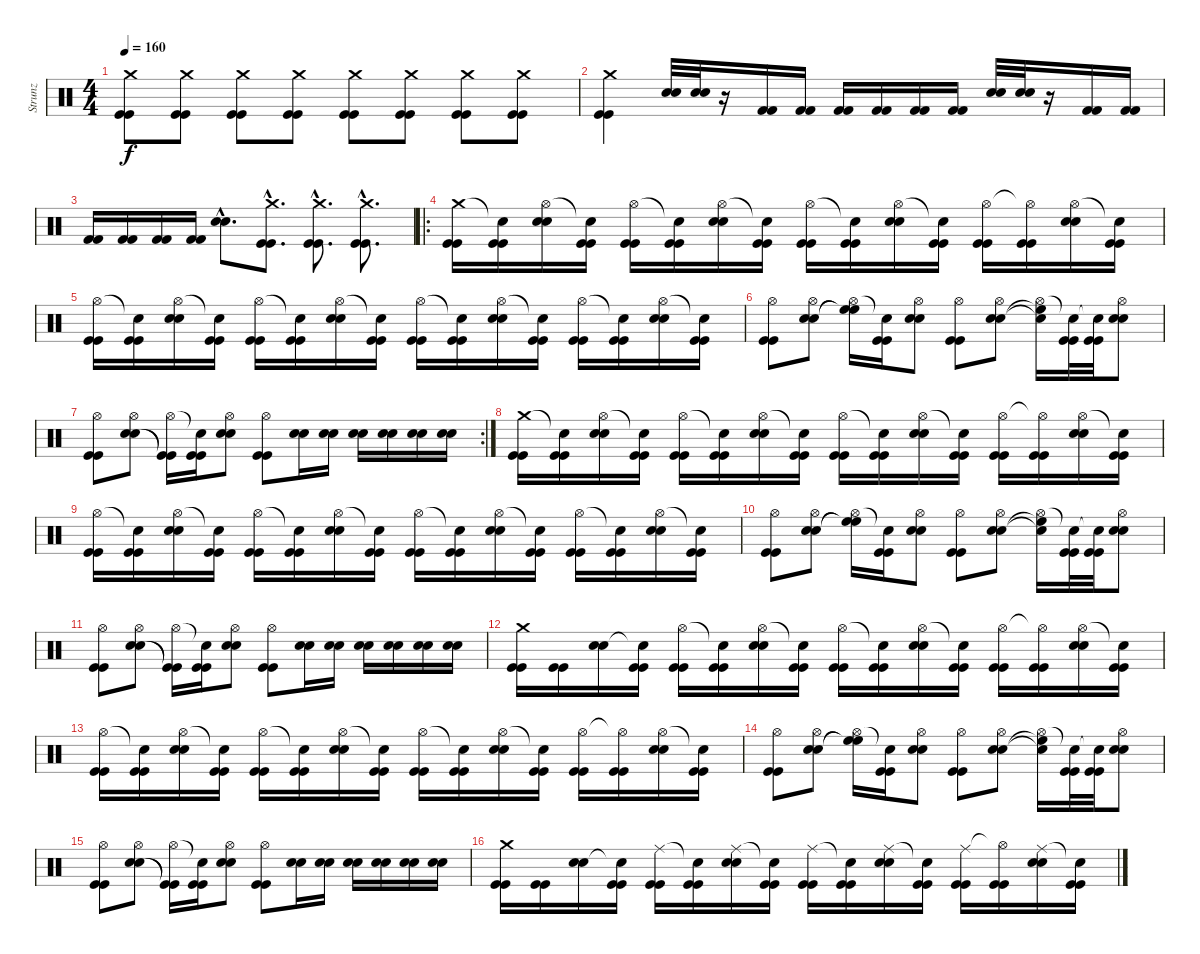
\track ("Strunz" "Strunz") {instrument percussion}
\staff {score}
\articulation defaults
\ts (4 4)
\tempo 160
\clef neutral
\ks c
("Crash medium (hit)" "Kick (hit)" "Kick (hit)").8{dy f} ("Crash medium (hit)" "Kick (hit)" "Kick (hit)").8 ("Crash medium (hit)" "Kick (hit)" "Kick (hit)").8 ("Crash medium (hit)" "Kick (hit)" "Kick (hit)").8 ("Crash medium (hit)" "Kick (hit)" "Kick (hit)").8 ("Crash medium (hit)" "Kick (hit)" "Kick (hit)").8 ("Crash medium (hit)" "Kick (hit)" "Kick (hit)").8 ("Crash medium (hit)" "Kick (hit)" "Kick (hit)").8 |
("Crash medium (hit)" "Kick (hit)" "Kick (hit)").4 ("Snare (hit) 2" "Snare (hit) 2").32 ("Snare (hit) 2" "Snare (hit) 2").32 r.16 ("Kick (hit) 2" "Kick (hit) 2").16 ("Kick (hit) 2" "Kick (hit) 2").16 ("Kick (hit) 2" "Kick (hit) 2").16 ("Kick (hit) 2" "Kick (hit) 2").16 ("Kick (hit) 2" "Kick (hit) 2").16 ("Kick (hit) 2" "Kick (hit) 2").16 ("Snare (hit) 2" "Snare (hit) 2").32 ("Snare (hit) 2" "Snare (hit) 2").32 r.16 ("Kick (hit) 2" "Kick (hit) 2").16 ("Kick (hit) 2" "Kick (hit) 2").16 |
("Kick (hit) 2" "Kick (hit) 2").16 ("Kick (hit) 2" "Kick (hit) 2").16 ("Kick (hit) 2" "Kick (hit) 2").16 ("Kick (hit) 2" "Kick (hit) 2").16 ("Snare (hit) 2"{hac} "Snare (hit) 2"{hac}).8{d} ("Crash medium (hit)"{hac} "Kick (hit)"{hac} "Kick (hit)"{hac}).8{d} ("Crash medium (hit)"{hac} "Kick (hit)"{hac} "Kick (hit)"{hac}).8{d} ("Crash medium (hit)"{hac} "Kick (hit)"{hac} "Kick (hit)"{hac}).8{d} |
\ro
("Crash medium (hit)" "Kick (hit)" "Kick (hit)").16 ("Snare (hit)"{t} "Kick (hit)" "Kick (hit)").16 ("Hi-Hat (open)" "Snare (hit) 2" "Snare (hit) 2").16 ("Snare (hit)"{t} "Kick (hit)" "Kick (hit)").16 ("Hi-Hat (open)" "Kick (hit)" "Kick (hit)").16 ("Snare (hit)"{t} "Kick (hit)" "Kick (hit)").16 ("Hi-Hat (open)" "Snare (hit) 2" "Snare (hit) 2").16 ("Snare (hit)"{t} "Kick (hit)" "Kick (hit)").16 ("Hi-Hat (open)" "Kick (hit)" "Kick (hit)").16 ("Snare (hit)"{t} "Kick (hit)" "Kick (hit)").16 ("Hi-Hat (open)" "Snare (hit) 2" "Snare (hit) 2").16 ("Snare (hit)"{t} "Kick (hit)" "Kick (hit)").16 ("Hi-Hat (open)" "Kick (hit)" "Kick (hit)").16 ("Hi-Hat (open)"{t} "Kick (hit)" "Kick (hit)").16 ("Hi-Hat (open)" "Snare (hit) 2" "Snare (hit) 2").16 ("Snare (hit)"{t} "Kick (hit)" "Kick (hit)").16 |
("Hi-Hat (open)" "Kick (hit)" "Kick (hit)").16 ("Snare (hit)"{t} "Kick (hit)" "Kick (hit)").16 ("Hi-Hat (open)" "Snare (hit) 2" "Snare (hit) 2").16 ("Snare (hit)"{t} "Kick (hit)" "Kick (hit)").16 ("Hi-Hat (open)" "Kick (hit)" "Kick (hit)").16 ("Snare (hit)"{t} "Kick (hit)" "Kick (hit)").16 ("Hi-Hat (open)" "Snare (hit) 2" "Snare (hit) 2").16 ("Snare (hit)"{t} "Kick (hit)" "Kick (hit)").16 ("Hi-Hat (open)" "Kick (hit)" "Kick (hit)").16 ("Snare (hit)"{t} "Kick (hit)" "Kick (hit)").16 ("Hi-Hat (open)" "Snare (hit) 2" "Snare (hit) 2").16 ("Snare (hit)"{t} "Kick (hit)" "Kick (hit)").16 ("Hi-Hat (open)" "Kick (hit)" "Kick (hit)").16 ("Snare (hit)"{t} "Kick (hit)" "Kick (hit)").16 ("Hi-Hat (open)" "Snare (hit) 2" "Snare (hit) 2").16 ("Snare (hit)"{t} "Kick (hit)" "Kick (hit)").16 |
("Hi-Hat (open)" "Kick (hit)" "Kick (hit)").8 ("Hi-Hat (open)" "Snare (hit) 2" "Snare (hit) 2").8 ("Hi-Hat (open)" "High Floor Tom (hit)"{t} "High Floor Tom (hit)"{t}).16 ("Snare (hit)"{t} "Kick (hit)" "Kick (hit)").16 ("Hi-Hat (open)" "Snare (hit) 2" "Snare (hit) 2").8 ("Hi-Hat (open)" "Kick (hit)" "Kick (hit)").8 ("Hi-Hat (open)" "Snare (hit) 2" "Snare (hit) 2").8 ("Hi-Hat (open)" "Snare (hit)"{t} "High Floor Tom (hit)"{t}).16 ("Snare (hit)"{t} "Kick (hit)" "Kick (hit)").32 ("Snare (hit)"{t} "Kick (hit)" "Kick (hit)").32 ("Hi-Hat (open)" "Snare (hit) 2" "Snare (hit) 2").8 |
\rc 2
("Hi-Hat (open)" "Kick (hit)" "Kick (hit)").8 ("Hi-Hat (open)" "Snare (hit) 2" "Snare (hit) 2").8 ("Hi-Hat (open)" "Kick (hit)"{t} "Kick (hit)"{t}).16 ("Snare (hit)"{t} "Kick (hit)" "Kick (hit)").16 ("Hi-Hat (open)" "Snare (hit) 2" "Snare (hit) 2").8 ("Hi-Hat (open)" "Kick (hit)" "Kick (hit)").8 ("Snare (hit) 2" "Snare (hit) 2").16 ("Snare (hit) 2" "Snare (hit) 2").16 ("Snare (hit) 2" "Snare (hit) 2").16 ("Snare (hit) 2" "Snare (hit) 2").16 ("Snare (hit) 2" "Snare (hit) 2").16 ("Snare (hit) 2" "Snare (hit) 2").16 |
("Crash medium (hit)" "Kick (hit)" "Kick (hit)").16 ("Snare (hit)"{t} "Kick (hit)" "Kick (hit)").16 ("Hi-Hat (open)" "Snare (hit) 2" "Snare (hit) 2").16 ("Snare (hit)"{t} "Kick (hit)" "Kick (hit)").16 ("Hi-Hat (open)" "Kick (hit)" "Kick (hit)").16 ("Snare (hit)"{t} "Kick (hit)" "Kick (hit)").16 ("Hi-Hat (open)" "Snare (hit) 2" "Snare (hit) 2").16 ("Snare (hit)"{t} "Kick (hit)" "Kick (hit)").16 ("Hi-Hat (open)" "Kick (hit)" "Kick (hit)").16 ("Snare (hit)"{t} "Kick (hit)" "Kick (hit)").16 ("Hi-Hat (open)" "Snare (hit) 2" "Snare (hit) 2").16 ("Snare (hit)"{t} "Kick (hit)" "Kick (hit)").16 ("Hi-Hat (open)" "Kick (hit)" "Kick (hit)").16 ("Hi-Hat (open)"{t} "Kick (hit)" "Kick (hit)").16 ("Hi-Hat (open)" "Snare (hit) 2" "Snare (hit) 2").16 ("Snare (hit)"{t} "Kick (hit)" "Kick (hit)").16 |
("Hi-Hat (open)" "Kick (hit)" "Kick (hit)").16 ("Snare (hit)"{t} "Kick (hit)" "Kick (hit)").16 ("Hi-Hat (open)" "Snare (hit) 2" "Snare (hit) 2").16 ("Snare (hit)"{t} "Kick (hit)" "Kick (hit)").16 ("Hi-Hat (open)" "Kick (hit)" "Kick (hit)").16 ("Snare (hit)"{t} "Kick (hit)" "Kick (hit)").16 ("Hi-Hat (open)" "Snare (hit) 2" "Snare (hit) 2").16 ("Snare (hit)"{t} "Kick (hit)" "Kick (hit)").16 ("Hi-Hat (open)" "Kick (hit)" "Kick (hit)").16 ("Snare (hit)"{t} "Kick (hit)" "Kick (hit)").16 ("Hi-Hat (open)" "Snare (hit) 2" "Snare (hit) 2").16 ("Snare (hit)"{t} "Kick (hit)" "Kick (hit)").16 ("Hi-Hat (open)" "Kick (hit)" "Kick (hit)").16 ("Snare (hit)"{t} "Kick (hit)" "Kick (hit)").16 ("Hi-Hat (open)" "Snare (hit) 2" "Snare (hit) 2").16 ("Snare (hit)"{t} "Kick (hit)" "Kick (hit)").16 |
("Hi-Hat (open)" "Kick (hit)" "Kick (hit)").8 ("Hi-Hat (open)" "Snare (hit) 2" "Snare (hit) 2").8 ("Hi-Hat (open)" "High Floor Tom (hit)"{t} "High Floor Tom (hit)"{t}).16 ("Snare (hit)"{t} "Kick (hit)" "Kick (hit)").16 ("Hi-Hat (open)" "Snare (hit) 2" "Snare (hit) 2").8 ("Hi-Hat (open)" "Kick (hit)" "Kick (hit)").8 ("Hi-Hat (open)" "Snare (hit) 2" "Snare (hit) 2").8 ("Hi-Hat (open)" "Snare (hit)"{t} "High Floor Tom (hit)"{t}).16 ("Snare (hit)"{t} "Kick (hit)" "Kick (hit)").32 ("Snare (hit)"{t} "Kick (hit)" "Kick (hit)").32 ("Hi-Hat (open)" "Snare (hit) 2" "Snare (hit) 2").8 |
("Hi-Hat (open)" "Kick (hit)" "Kick (hit)").8 ("Hi-Hat (open)" "Snare (hit) 2" "Snare (hit) 2").8 ("Hi-Hat (open)" "Kick (hit)"{t} "Kick (hit)"{t}).16 ("Snare (hit)"{t} "Kick (hit)" "Kick (hit)").16 ("Hi-Hat (open)" "Snare (hit) 2" "Snare (hit) 2").8 ("Hi-Hat (open)" "Kick (hit)" "Kick (hit)").8 ("Snare (hit) 2" "Snare (hit) 2").16 ("Snare (hit) 2" "Snare (hit) 2").16 ("Snare (hit) 2" "Snare (hit) 2").16 ("Snare (hit) 2" "Snare (hit) 2").16 ("Snare (hit) 2" "Snare (hit) 2").16 ("Snare (hit) 2" "Snare (hit) 2").16 |
("Crash medium (hit)" "Kick (hit)" "Kick (hit)").16 ("Kick (hit)" "Kick (hit)").16 ("Snare (hit) 2" "Snare (hit) 2").16 ("Snare (hit)"{t} "Kick (hit)" "Kick (hit)").16 ("Hi-Hat (open)" "Kick (hit)" "Kick (hit)").16 ("Snare (hit)"{t} "Kick (hit)" "Kick (hit)").16 ("Hi-Hat (open)" "Snare (hit) 2" "Snare (hit) 2").16 ("Snare (hit)"{t} "Kick (hit)" "Kick (hit)").16 ("Hi-Hat (open)" "Kick (hit)" "Kick (hit)").16 ("Snare (hit)"{t} "Kick (hit)" "Kick (hit)").16 ("Hi-Hat (open)" "Snare (hit) 2" "Snare (hit) 2").16 ("Snare (hit)"{t} "Kick (hit)" "Kick (hit)").16 ("Hi-Hat (open)" "Kick (hit)" "Kick (hit)").16 ("Hi-Hat (open)"{t} "Kick (hit)" "Kick (hit)").16 ("Hi-Hat (open)" "Snare (hit) 2" "Snare (hit) 2").16 ("Snare (hit)"{t} "Kick (hit)" "Kick (hit)").16 |
("Hi-Hat (open)" "Kick (hit)" "Kick (hit)").16 ("Snare (hit)"{t} "Kick (hit)" "Kick (hit)").16 ("Hi-Hat (open)" "Snare (hit) 2" "Snare (hit) 2").16 ("Snare (hit)"{t} "Kick (hit)" "Kick (hit)").16 ("Hi-Hat (open)" "Kick (hit)" "Kick (hit)").16 ("Snare (hit)"{t} "Kick (hit)" "Kick (hit)").16 ("Hi-Hat (open)" "Snare (hit) 2" "Snare (hit) 2").16 ("Snare (hit)"{t} "Kick (hit)" "Kick (hit)").16 ("Hi-Hat (open)" "Kick (hit)" "Kick (hit)").16 ("Snare (hit)"{t} "Kick (hit)" "Kick (hit)").16 ("Hi-Hat (open)" "Snare (hit) 2" "Snare (hit) 2").16 ("Snare (hit)"{t} "Kick (hit)" "Kick (hit)").16 ("Hi-Hat (open)" "Kick (hit)" "Kick (hit)").16 ("Hi-Hat (open)"{t} "Kick (hit)" "Kick (hit)").16 ("Hi-Hat (open)" "Snare (hit) 2" "Snare (hit) 2").16 ("Snare (hit)"{t} "Kick (hit)" "Kick (hit)").16 |
("Hi-Hat (open)" "Kick (hit)" "Kick (hit)").8 ("Hi-Hat (open)" "Snare (hit) 2" "Snare (hit) 2").8 ("Hi-Hat (open)" "High Floor Tom (hit)"{t} "High Floor Tom (hit)"{t}).16 ("Snare (hit)"{t} "Kick (hit)" "Kick (hit)").16 ("Hi-Hat (open)" "Snare (hit) 2" "Snare (hit) 2").8 ("Hi-Hat (open)" "Kick (hit)" "Kick (hit)").8 ("Hi-Hat (open)" "Snare (hit) 2" "Snare (hit) 2").8 ("Hi-Hat (open)" "Snare (hit)"{t} "High Floor Tom (hit)"{t}).16 ("Snare (hit)"{t} "Kick (hit)" "Kick (hit)").32 ("Snare (hit)"{t} "Kick (hit)" "Kick (hit)").32 ("Hi-Hat (open)" "Snare (hit) 2" "Snare (hit) 2").8 |
("Hi-Hat (open)" "Kick (hit)" "Kick (hit)").8 ("Hi-Hat (open)" "Snare (hit) 2" "Snare (hit) 2").8 ("Hi-Hat (open)" "Kick (hit)"{t} "Kick (hit)"{t}).16 ("Snare (hit)"{t} "Kick (hit)" "Kick (hit)").16 ("Hi-Hat (open)" "Snare (hit) 2" "Snare (hit) 2").8 ("Hi-Hat (open)" "Kick (hit)" "Kick (hit)").8 ("Snare (hit) 2" "Snare (hit) 2").16 ("Snare (hit) 2" "Snare (hit) 2").16 ("Snare (hit) 2" "Snare (hit) 2").16 ("Snare (hit) 2" "Snare (hit) 2").16 ("Snare (hit) 2" "Snare (hit) 2").16 ("Snare (hit) 2" "Snare (hit) 2").16 |
("Crash medium (hit)" "Kick (hit)" "Kick (hit)").16 ("Kick (hit)" "Kick (hit)").16 ("Snare (hit) 2" "Snare (hit) 2").16 ("Snare (hit)"{t} "Kick (hit)" "Kick (hit)").16 ("Ride (middle)" "Kick (hit)" "Kick (hit)").16 ("Snare (hit)"{t} "Kick (hit)" "Kick (hit)").16 ("Ride (middle)" "Snare (hit) 2" "Snare (hit) 2").16 ("Snare (hit)"{t} "Kick (hit)" "Kick (hit)").16 ("Ride (middle)" "Kick (hit)" "Kick (hit)").16 ("Snare (hit)"{t} "Kick (hit)" "Kick (hit)").16 ("Ride (middle)" "Snare (hit) 2" "Snare (hit) 2").16 ("Snare (hit)"{t} "Kick (hit)" "Kick (hit)").16 ("Ride (middle)" "Kick (hit)" "Kick (hit)").16 ("Hi-Hat (open)"{t} "Kick (hit)" "Kick (hit)").16 ("Ride (middle)" "Snare (hit) 2" "Snare (hit) 2").16 ("Snare (hit)"{t} "Kick (hit)" "Kick (hit)").16
